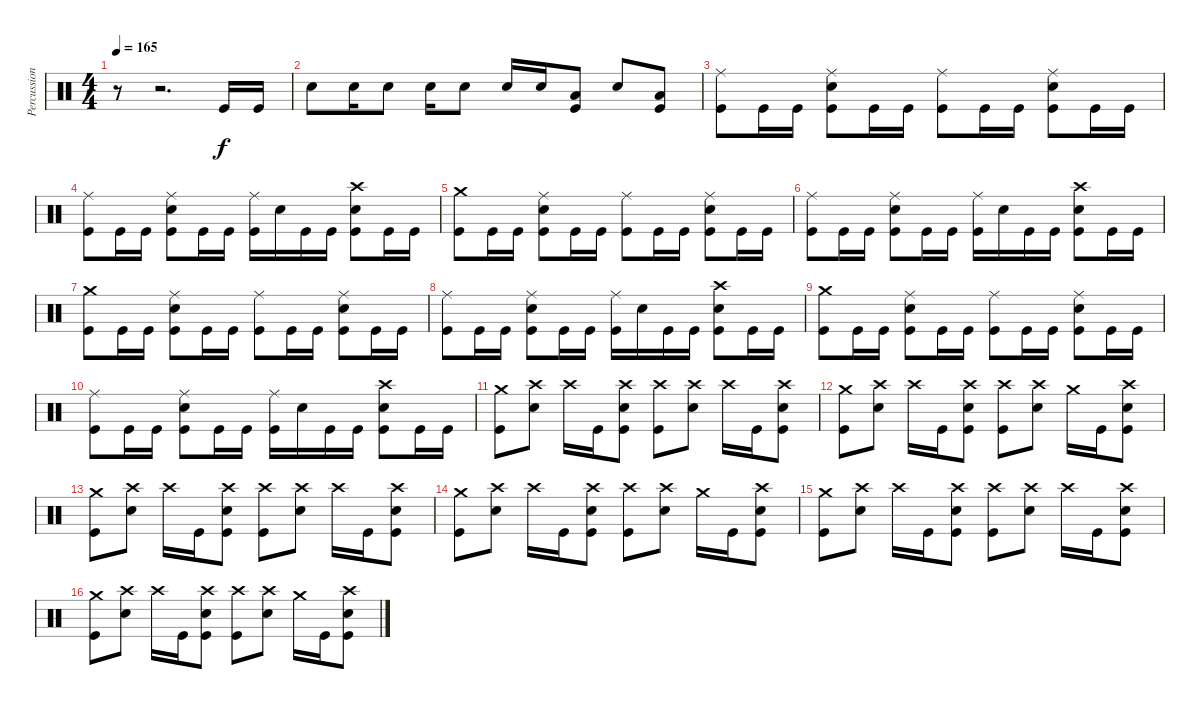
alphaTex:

\track ("Percussion" "Percussion") {instrument percussion}
\staff {score}
\articulation defaults
\ts (4 4)
\tempo 165
\clef neutral
\ks c
r.8{dy f} r.2{d} "Kick (hit)".16 "Kick (hit)".16 |
"Snare (hit) 2".8 "Snare (hit) 2".16 "Snare (hit) 2".8 "Snare (hit) 2".16 "Snare (hit) 2".8 "Snare (hit) 2".16 "Snare (hit) 2".16 ("Low Tom (hit)" "Kick (hit)").8 "Snare (hit) 2".8 ("Low Tom (hit)" "Kick (hit)").8 |
("Ride (middle)" "Kick (hit)").8 "Kick (hit)".16 "Kick (hit)".16 ("Ride (middle)" "Snare (hit) 2" "Kick (hit)").8 "Kick (hit)".16 "Kick (hit)".16 ("Ride (middle)" "Kick (hit)").8 "Kick (hit)".16 "Kick (hit)".16 ("Ride (middle)" "Snare (hit) 2" "Kick (hit)").8 "Kick (hit)".16 "Kick (hit)".16 |
("Ride (middle)" "Kick (hit)").8 "Kick (hit)".16 "Kick (hit)".16 ("Ride (middle)" "Snare (hit) 2" "Kick (hit)").8 "Kick (hit)".16 "Kick (hit)".16 ("Ride (middle)" "Kick (hit)").16 "Snare (hit) 2".16 "Kick (hit)".16 "Kick (hit)".16 ("Crash high (hit)" "Snare (hit) 2" "Kick (hit)").8 "Kick (hit)".16 "Kick (hit)".16 |
("Crash medium (hit)" "Kick (hit)").8 "Kick (hit)".16 "Kick (hit)".16 ("Ride (middle)" "Snare (hit) 2" "Kick (hit)").8 "Kick (hit)".16 "Kick (hit)".16 ("Ride (middle)" "Kick (hit)").8 "Kick (hit)".16 "Kick (hit)".16 ("Ride (middle)" "Snare (hit) 2" "Kick (hit)").8 "Kick (hit)".16 "Kick (hit)".16 |
("Ride (middle)" "Kick (hit)").8 "Kick (hit)".16 "Kick (hit)".16 ("Ride (middle)" "Snare (hit) 2" "Kick (hit)").8 "Kick (hit)".16 "Kick (hit)".16 ("Ride (middle)" "Kick (hit)").16 "Snare (hit) 2".16 "Kick (hit)".16 "Kick (hit)".16 ("Crash high (hit)" "Snare (hit) 2" "Kick (hit)").8 "Kick (hit)".16 "Kick (hit)".16 |
("Crash medium (hit)" "Kick (hit)").8 "Kick (hit)".16 "Kick (hit)".16 ("Ride (middle)" "Snare (hit) 2" "Kick (hit)").8 "Kick (hit)".16 "Kick (hit)".16 ("Ride (middle)" "Kick (hit)").8 "Kick (hit)".16 "Kick (hit)".16 ("Ride (middle)" "Snare (hit) 2" "Kick (hit)").8 "Kick (hit)".16 "Kick (hit)".16 |
("Ride (middle)" "Kick (hit)").8 "Kick (hit)".16 "Kick (hit)".16 ("Ride (middle)" "Snare (hit) 2" "Kick (hit)").8 "Kick (hit)".16 "Kick (hit)".16 ("Ride (middle)" "Kick (hit)").16 "Snare (hit) 2".16 "Kick (hit)".16 "Kick (hit)".16 ("Crash high (hit)" "Snare (hit) 2" "Kick (hit)").8 "Kick (hit)".16 "Kick (hit)".16 |
("Crash medium (hit)" "Kick (hit)").8 "Kick (hit)".16 "Kick (hit)".16 ("Ride (middle)" "Snare (hit) 2" "Kick (hit)").8 "Kick (hit)".16 "Kick (hit)".16 ("Ride (middle)" "Kick (hit)").8 "Kick (hit)".16 "Kick (hit)".16 ("Ride (middle)" "Snare (hit) 2" "Kick (hit)").8 "Kick (hit)".16 "Kick (hit)".16 |
("Ride (middle)" "Kick (hit)").8 "Kick (hit)".16 "Kick (hit)".16 ("Ride (middle)" "Snare (hit) 2" "Kick (hit)").8 "Kick (hit)".16 "Kick (hit)".16 ("Ride (middle)" "Kick (hit)").16 "Snare (hit) 2".16 "Kick (hit)".16 "Kick (hit)".16 ("Crash high (hit)" "Snare (hit) 2" "Kick (hit)").8 "Kick (hit)".16 "Kick (hit)".16 |
("Crash medium (hit)" "Kick (hit)").8 ("Crash high (hit)" "Snare (hit) 2").8 "Crash high (hit)".16 "Kick (hit)".16 ("Crash high (hit)" "Snare (hit) 2" "Kick (hit)").8 ("Crash high (hit)" "Kick (hit)").8 ("Crash high (hit)" "Snare (hit) 2").8 "Crash high (hit)".16 "Kick (hit)".16 ("Crash high (hit)" "Snare (hit) 2" "Kick (hit)").8 |
("Crash medium (hit)" "Kick (hit)").8 ("Crash high (hit)" "Snare (hit) 2").8 "Crash high (hit)".16 "Kick (hit)".16 ("Crash high (hit)" "Snare (hit) 2" "Kick (hit)").8 ("Crash high (hit)" "Kick (hit)").8 ("Crash high (hit)" "Snare (hit) 2").8 "Crash medium (hit)".16 "Kick (hit)".16 ("Crash high (hit)" "Snare (hit) 2" "Kick (hit)").8 |
("Crash medium (hit)" "Kick (hit)").8 ("Crash high (hit)" "Snare (hit) 2").8 "Crash high (hit)".16 "Kick (hit)".16 ("Crash high (hit)" "Snare (hit) 2" "Kick (hit)").8 ("Crash high (hit)" "Kick (hit)").8 ("Crash high (hit)" "Snare (hit) 2").8 "Crash high (hit)".16 "Kick (hit)".16 ("Crash high (hit)" "Snare (hit) 2" "Kick (hit)").8 |
("Crash medium (hit)" "Kick (hit)").8 ("Crash high (hit)" "Snare (hit) 2").8 "Crash high (hit)".16 "Kick (hit)".16 ("Crash high (hit)" "Snare (hit) 2" "Kick (hit)").8 ("Crash high (hit)" "Kick (hit)").8 ("Crash high (hit)" "Snare (hit) 2").8 "Crash medium (hit)".16 "Kick (hit)".16 ("Crash high (hit)" "Snare (hit) 2" "Kick (hit)").8 |
("Crash medium (hit)" "Kick (hit)").8 ("Crash high (hit)" "Snare (hit) 2").8 "Crash high (hit)".16 "Kick (hit)".16 ("Crash high (hit)" "Snare (hit) 2" "Kick (hit)").8 ("Crash high (hit)" "Kick (hit)").8 ("Crash high (hit)" "Snare (hit) 2").8 "Crash high (hit)".16 "Kick (hit)".16 ("Crash high (hit)" "Snare (hit) 2" "Kick (hit)").8 |
("Crash medium (hit)" "Kick (hit)").8 ("Crash high (hit)" "Snare (hit) 2").8 "Crash high (hit)".16 "Kick (hit)".16 ("Crash high (hit)" "Snare (hit) 2" "Kick (hit)").8 ("Crash high (hit)" "Kick (hit)").8 ("Crash high (hit)" "Snare (hit) 2").8 "Crash medium (hit)".16 "Kick (hit)".16 ("Crash high (hit)" "Snare (hit) 2" "Kick (hit)").8
